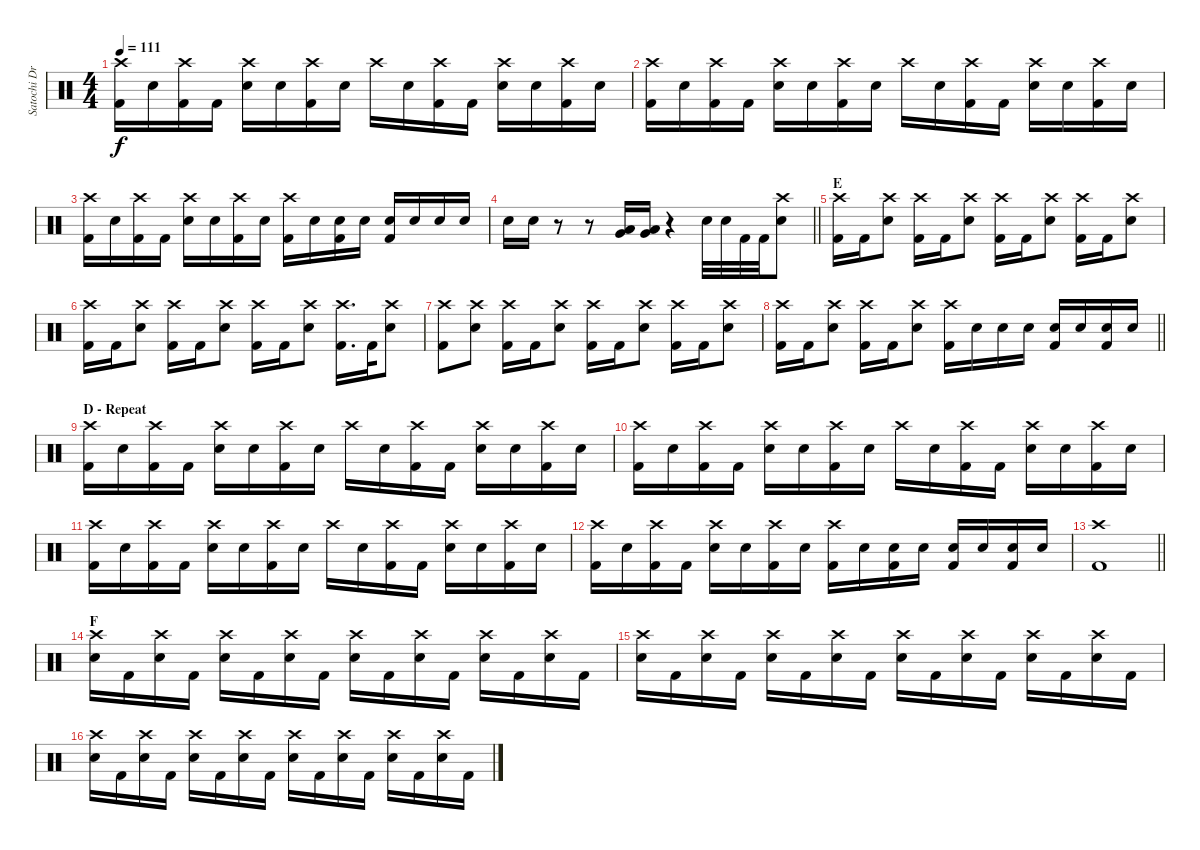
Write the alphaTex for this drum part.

\track ("Satochi Drums" "Satochi Dr") {instrument percussion}
\staff {score}
\articulation defaults
\ts (4 4)
\tempo 111
\clef neutral
\ks c
("Crash high (hit)" "Kick (hit) 2").16{dy f} "Snare (hit) 2".16 ("Crash high (hit)" "Kick (hit) 2").16 "Kick (hit) 2".16 ("Crash high (hit)" "Snare (hit) 2").16 "Snare (hit) 2".16 ("Crash high (hit)" "Kick (hit) 2").16 "Snare (hit) 2".16 "Crash high (hit)".16 "Snare (hit) 2".16 ("Crash high (hit)" "Kick (hit) 2").16 "Kick (hit) 2".16 ("Crash high (hit)" "Snare (hit) 2").16 "Snare (hit) 2".16 ("Crash high (hit)" "Kick (hit) 2").16 "Snare (hit) 2".16 |
("Crash high (hit)" "Kick (hit) 2").16 "Snare (hit) 2".16 ("Crash high (hit)" "Kick (hit) 2").16 "Kick (hit) 2".16 ("Crash high (hit)" "Snare (hit) 2").16 "Snare (hit) 2".16 ("Crash high (hit)" "Kick (hit) 2").16 "Snare (hit) 2".16 "Crash high (hit)".16 "Snare (hit) 2".16 ("Crash high (hit)" "Kick (hit) 2").16 "Kick (hit) 2".16 ("Crash high (hit)" "Snare (hit) 2").16 "Snare (hit) 2".16 ("Crash high (hit)" "Kick (hit) 2").16 "Snare (hit) 2".16 |
("Crash high (hit)" "Kick (hit) 2").16 "Snare (hit) 2".16 ("Crash high (hit)" "Kick (hit) 2").16 "Kick (hit) 2".16 ("Crash high (hit)" "Snare (hit) 2").16 "Snare (hit) 2".16 ("Crash high (hit)" "Kick (hit) 2").16 "Snare (hit) 2".16 ("Crash high (hit)" "Kick (hit) 2").16 "Snare (hit) 2".16 ("Snare (hit) 2" "Kick (hit) 2").16 "Snare (hit) 2".16 ("Snare (hit) 2" "Kick (hit) 2").16 "Snare (hit) 2".16 "Snare (hit) 2".16 "Snare (hit) 2".16 |
\barLineRight lightlight "Snare (hit) 2".16 "Snare (hit) 2".16
r.8 r.8 ("Low Tom (hit)" "Very Low Tom (hit)").16 ("Low Tom (hit)" "Very Low Tom (hit)").16 r.4 "Snare (hit) 2".32 "Snare (hit) 2".32 "Kick (hit) 2".32 "Kick (hit) 2".32 ("Crash high (hit)" "Snare (hit) 2").8 |
\section ("" "E")
("Crash high (hit)" "Kick (hit) 2").16 "Kick (hit) 2".16 ("Crash high (hit)" "Snare (hit) 2").8 ("Crash high (hit)" "Kick (hit) 2").16 "Kick (hit) 2".16 ("Crash high (hit)" "Snare (hit) 2").8 ("Crash high (hit)" "Kick (hit) 2").16 "Kick (hit) 2".16 ("Crash high (hit)" "Snare (hit) 2").8 ("Crash high (hit)" "Kick (hit) 2").16 "Kick (hit) 2".16 ("Crash high (hit)" "Snare (hit) 2").8 |
("Crash high (hit)" "Kick (hit) 2").16 "Kick (hit) 2".16 ("Crash high (hit)" "Snare (hit) 2").8 ("Crash high (hit)" "Kick (hit) 2").16 "Kick (hit) 2".16 ("Crash high (hit)" "Snare (hit) 2").8 ("Crash high (hit)" "Kick (hit) 2").16 "Kick (hit) 2".16 ("Crash high (hit)" "Snare (hit) 2").8 ("Crash high (hit)" "Kick (hit) 2").16{d} "Kick (hit) 2".32 ("Crash high (hit)" "Snare (hit) 2").8 |
("Crash high (hit)" "Kick (hit) 2").8 ("Crash high (hit)" "Snare (hit) 2").8 ("Crash high (hit)" "Kick (hit) 2").16 "Kick (hit) 2".16 ("Crash high (hit)" "Snare (hit) 2").8 ("Crash high (hit)" "Kick (hit) 2").16 "Kick (hit) 2".16 ("Crash high (hit)" "Snare (hit) 2").8 ("Crash high (hit)" "Kick (hit) 2").16 "Kick (hit) 2".16 ("Crash high (hit)" "Snare (hit) 2").8 |
\barLineRight lightlight
("Crash high (hit)" "Kick (hit) 2").16 "Kick (hit) 2".16 ("Crash high (hit)" "Snare (hit) 2").8 ("Crash high (hit)" "Kick (hit) 2").16 "Kick (hit) 2".16 ("Crash high (hit)" "Snare (hit) 2").8 ("Crash high (hit)" "Kick (hit) 2").16 "Snare (hit) 2".16 "Snare (hit) 2".16 "Snare (hit) 2".16 ("Snare (hit) 2" "Kick (hit) 2").16 "Snare (hit) 2".16 ("Snare (hit) 2" "Kick (hit) 2").16 "Snare (hit) 2".16 |
\section ("" "D - Repeat ")
("Crash high (hit)" "Kick (hit) 2").16 "Snare (hit) 2".16 ("Crash high (hit)" "Kick (hit) 2").16 "Kick (hit) 2".16 ("Crash high (hit)" "Snare (hit) 2").16 "Snare (hit) 2".16 ("Crash high (hit)" "Kick (hit) 2").16 "Snare (hit) 2".16 "Crash high (hit)".16 "Snare (hit) 2".16 ("Crash high (hit)" "Kick (hit) 2").16 "Kick (hit) 2".16 ("Crash high (hit)" "Snare (hit) 2").16 "Snare (hit) 2".16 ("Crash high (hit)" "Kick (hit) 2").16 "Snare (hit) 2".16 |
("Crash high (hit)" "Kick (hit) 2").16 "Snare (hit) 2".16 ("Crash high (hit)" "Kick (hit) 2").16 "Kick (hit) 2".16 ("Crash high (hit)" "Snare (hit) 2").16 "Snare (hit) 2".16 ("Crash high (hit)" "Kick (hit) 2").16 "Snare (hit) 2".16 "Crash high (hit)".16 "Snare (hit) 2".16 ("Crash high (hit)" "Kick (hit) 2").16 "Kick (hit) 2".16 ("Crash high (hit)" "Snare (hit) 2").16 "Snare (hit) 2".16 ("Crash high (hit)" "Kick (hit) 2").16 "Snare (hit) 2".16 |
("Crash high (hit)" "Kick (hit) 2").16 "Snare (hit) 2".16 ("Crash high (hit)" "Kick (hit) 2").16 "Kick (hit) 2".16 ("Crash high (hit)" "Snare (hit) 2").16 "Snare (hit) 2".16 ("Crash high (hit)" "Kick (hit) 2").16 "Snare (hit) 2".16 "Crash high (hit)".16 "Snare (hit) 2".16 ("Crash high (hit)" "Kick (hit) 2").16 "Kick (hit) 2".16 ("Crash high (hit)" "Snare (hit) 2").16 "Snare (hit) 2".16 ("Crash high (hit)" "Kick (hit) 2").16 "Snare (hit) 2".16 |
("Crash high (hit)" "Kick (hit) 2").16 "Snare (hit) 2".16 ("Crash high (hit)" "Kick (hit) 2").16 "Kick (hit) 2".16 ("Crash high (hit)" "Snare (hit) 2").16 "Snare (hit) 2".16 ("Crash high (hit)" "Kick (hit) 2").16 "Snare (hit) 2".16 ("Crash high (hit)" "Kick (hit) 2").16 "Snare (hit) 2".16 ("Snare (hit) 2" "Kick (hit) 2").16 "Snare (hit) 2".16 ("Snare (hit) 2" "Kick (hit) 2").16 "Snare (hit) 2".16 ("Snare (hit) 2" "Kick (hit) 2").16 "Snare (hit) 2".16 |
\barLineRight lightlight
("Crash high (hit)" "Kick (hit) 2").1 |
\section ("" "F")
("Crash high (hit)" "Snare (hit) 2").16 "Kick (hit) 2".16 ("Crash high (hit)" "Snare (hit) 2").16 "Kick (hit) 2".16 ("Crash high (hit)" "Snare (hit) 2").16 "Kick (hit) 2".16 ("Crash high (hit)" "Snare (hit) 2").16 "Kick (hit) 2".16 ("Crash high (hit)" "Snare (hit) 2").16 "Kick (hit) 2".16 ("Crash high (hit)" "Snare (hit) 2").16 "Kick (hit) 2".16 ("Crash high (hit)" "Snare (hit) 2").16 "Kick (hit) 2".16 ("Crash high (hit)" "Snare (hit) 2").16 "Kick (hit) 2".16 |
("Crash high (hit)" "Snare (hit) 2").16 "Kick (hit) 2".16 ("Crash high (hit)" "Snare (hit) 2").16 "Kick (hit) 2".16 ("Crash high (hit)" "Snare (hit) 2").16 "Kick (hit) 2".16 ("Crash high (hit)" "Snare (hit) 2").16 "Kick (hit) 2".16 ("Crash high (hit)" "Snare (hit) 2").16 "Kick (hit) 2".16 ("Crash high (hit)" "Snare (hit) 2").16 "Kick (hit) 2".16 ("Crash high (hit)" "Snare (hit) 2").16 "Kick (hit) 2".16 ("Crash high (hit)" "Snare (hit) 2").16 "Kick (hit) 2".16 |
("Crash high (hit)" "Snare (hit) 2").16 "Kick (hit) 2".16 ("Crash high (hit)" "Snare (hit) 2").16 "Kick (hit) 2".16 ("Crash high (hit)" "Snare (hit) 2").16 "Kick (hit) 2".16 ("Crash high (hit)" "Snare (hit) 2").16 "Kick (hit) 2".16 ("Crash high (hit)" "Snare (hit) 2").16 "Kick (hit) 2".16 ("Crash high (hit)" "Snare (hit) 2").16 "Kick (hit) 2".16 ("Crash high (hit)" "Snare (hit) 2").16 "Kick (hit) 2".16 ("Crash high (hit)" "Snare (hit) 2").16 "Kick (hit) 2".16
